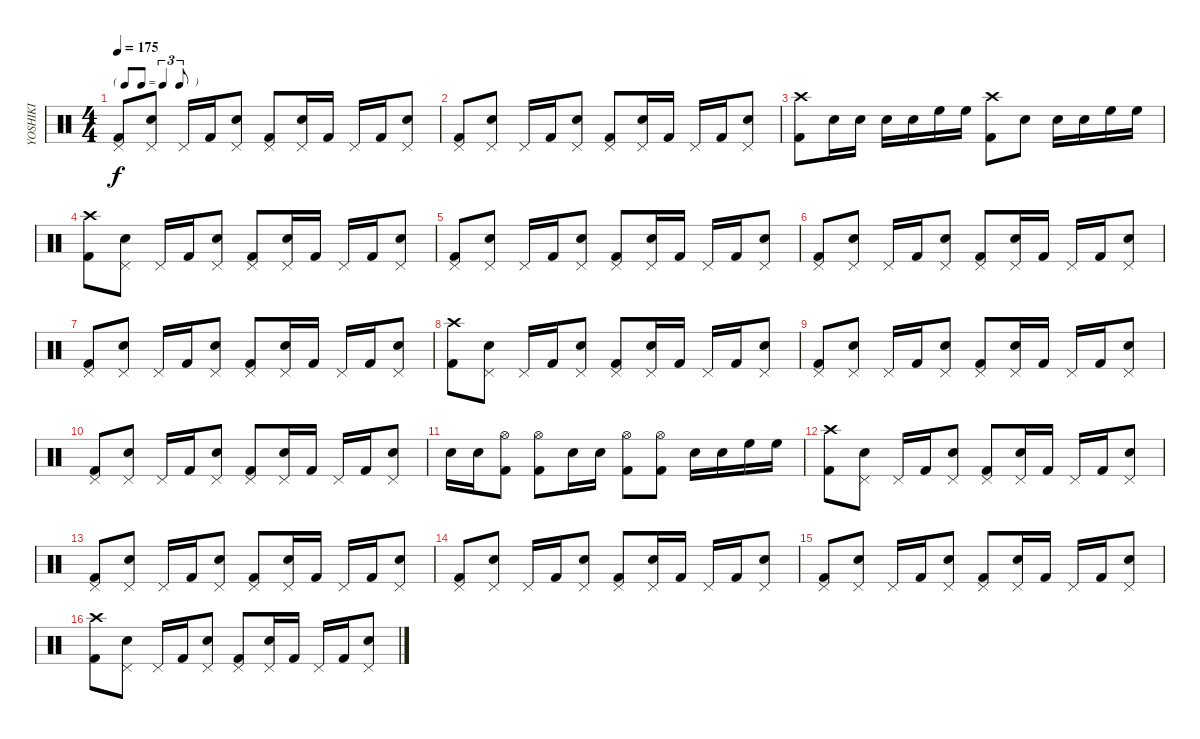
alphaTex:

\track ("YOSHIKI" "YOSHIKI") {instrument percussion}
\staff {score}
\articulation defaults
\ts (4 4)
\tf triplet8th
\tempo 175
\clef neutral
\ks c
("Pedal Hi-Hat (hit)" "Kick (hit) 2").8{dy f} ("Pedal Hi-Hat (hit)" "Snare (hit) 2").8 "Pedal Hi-Hat (hit)".16 "Kick (hit) 2".16 ("Pedal Hi-Hat (hit)" "Snare (hit) 2").8 ("Pedal Hi-Hat (hit)" "Kick (hit) 2").8 ("Pedal Hi-Hat (hit)" "Snare (hit) 2").16 "Kick (hit) 2".16 "Pedal Hi-Hat (hit)".16 "Kick (hit) 2".16 ("Pedal Hi-Hat (hit)" "Snare (hit) 2").8 |
("Pedal Hi-Hat (hit)" "Kick (hit) 2").8 ("Pedal Hi-Hat (hit)" "Snare (hit) 2").8 "Pedal Hi-Hat (hit)".16 "Kick (hit) 2".16 ("Pedal Hi-Hat (hit)" "Snare (hit) 2").8 ("Pedal Hi-Hat (hit)" "Kick (hit) 2").8 ("Pedal Hi-Hat (hit)" "Snare (hit) 2").16 "Kick (hit) 2".16 "Pedal Hi-Hat (hit)".16 "Kick (hit) 2".16 ("Pedal Hi-Hat (hit)" "Snare (hit) 2").8 |
("Crash high (hit)" "Kick (hit) 2").8 "Snare (hit) 2".16 "Snare (hit) 2".16 "Snare (hit) 2".16 "Snare (hit) 2".16 "High Floor Tom (hit)".16 "High Floor Tom (hit)".16 ("Crash high (hit)" "Kick (hit) 2").8 "Snare (hit) 2".8 "Snare (hit) 2".16 "Snare (hit) 2".16 "High Floor Tom (hit)".16 "High Floor Tom (hit)".16 |
("Crash high (hit)" "Kick (hit) 2").8 ("Pedal Hi-Hat (hit)" "Snare (hit) 2").8 "Pedal Hi-Hat (hit)".16 "Kick (hit) 2".16 ("Pedal Hi-Hat (hit)" "Snare (hit) 2").8 ("Pedal Hi-Hat (hit)" "Kick (hit) 2").8 ("Pedal Hi-Hat (hit)" "Snare (hit) 2").16 "Kick (hit) 2".16 "Pedal Hi-Hat (hit)".16 "Kick (hit) 2".16 ("Pedal Hi-Hat (hit)" "Snare (hit) 2").8 |
("Pedal Hi-Hat (hit)" "Kick (hit) 2").8 ("Pedal Hi-Hat (hit)" "Snare (hit) 2").8 "Pedal Hi-Hat (hit)".16 "Kick (hit) 2".16 ("Pedal Hi-Hat (hit)" "Snare (hit) 2").8 ("Pedal Hi-Hat (hit)" "Kick (hit) 2").8 ("Pedal Hi-Hat (hit)" "Snare (hit) 2").16 "Kick (hit) 2".16 "Pedal Hi-Hat (hit)".16 "Kick (hit) 2".16 ("Pedal Hi-Hat (hit)" "Snare (hit) 2").8 |
("Pedal Hi-Hat (hit)" "Kick (hit) 2").8 ("Pedal Hi-Hat (hit)" "Snare (hit) 2").8 "Pedal Hi-Hat (hit)".16 "Kick (hit) 2".16 ("Pedal Hi-Hat (hit)" "Snare (hit) 2").8 ("Pedal Hi-Hat (hit)" "Kick (hit) 2").8 ("Pedal Hi-Hat (hit)" "Snare (hit) 2").16 "Kick (hit) 2".16 "Pedal Hi-Hat (hit)".16 "Kick (hit) 2".16 ("Pedal Hi-Hat (hit)" "Snare (hit) 2").8 |
("Pedal Hi-Hat (hit)" "Kick (hit) 2").8 ("Pedal Hi-Hat (hit)" "Snare (hit) 2").8 "Pedal Hi-Hat (hit)".16 "Kick (hit) 2".16 ("Pedal Hi-Hat (hit)" "Snare (hit) 2").8 ("Pedal Hi-Hat (hit)" "Kick (hit) 2").8 ("Pedal Hi-Hat (hit)" "Snare (hit) 2").16 "Kick (hit) 2".16 "Pedal Hi-Hat (hit)".16 "Kick (hit) 2".16 ("Pedal Hi-Hat (hit)" "Snare (hit) 2").8 |
("Crash high (hit)" "Kick (hit) 2").8 ("Pedal Hi-Hat (hit)" "Snare (hit) 2").8 "Pedal Hi-Hat (hit)".16 "Kick (hit) 2".16 ("Pedal Hi-Hat (hit)" "Snare (hit) 2").8 ("Pedal Hi-Hat (hit)" "Kick (hit) 2").8 ("Pedal Hi-Hat (hit)" "Snare (hit) 2").16 "Kick (hit) 2".16 "Pedal Hi-Hat (hit)".16 "Kick (hit) 2".16 ("Pedal Hi-Hat (hit)" "Snare (hit) 2").8 |
("Pedal Hi-Hat (hit)" "Kick (hit) 2").8 ("Pedal Hi-Hat (hit)" "Snare (hit) 2").8 "Pedal Hi-Hat (hit)".16 "Kick (hit) 2".16 ("Pedal Hi-Hat (hit)" "Snare (hit) 2").8 ("Pedal Hi-Hat (hit)" "Kick (hit) 2").8 ("Pedal Hi-Hat (hit)" "Snare (hit) 2").16 "Kick (hit) 2".16 "Pedal Hi-Hat (hit)".16 "Kick (hit) 2".16 ("Pedal Hi-Hat (hit)" "Snare (hit) 2").8 |
("Pedal Hi-Hat (hit)" "Kick (hit) 2").8 ("Pedal Hi-Hat (hit)" "Snare (hit) 2").8 "Pedal Hi-Hat (hit)".16 "Kick (hit) 2".16 ("Pedal Hi-Hat (hit)" "Snare (hit) 2").8 ("Pedal Hi-Hat (hit)" "Kick (hit) 2").8 ("Pedal Hi-Hat (hit)" "Snare (hit) 2").16 "Kick (hit) 2".16 "Pedal Hi-Hat (hit)".16 "Kick (hit) 2".16 ("Pedal Hi-Hat (hit)" "Snare (hit) 2").8 |
"Snare (hit) 2".16 "Snare (hit) 2".16 ("Hi-Hat (open)" "Kick (hit) 2").8 ("Hi-Hat (open)" "Kick (hit) 2").8 "Snare (hit) 2".16 "Snare (hit) 2".16 ("Hi-Hat (open)" "Kick (hit) 2").8 ("Hi-Hat (open)" "Kick (hit) 2").8 "Snare (hit) 2".16 "Snare (hit) 2".16 "High Floor Tom (hit)".16 "High Floor Tom (hit)".16 |
("Crash high (hit)" "Kick (hit) 2").8 ("Pedal Hi-Hat (hit)" "Snare (hit) 2").8 "Pedal Hi-Hat (hit)".16 "Kick (hit) 2".16 ("Pedal Hi-Hat (hit)" "Snare (hit) 2").8 ("Pedal Hi-Hat (hit)" "Kick (hit) 2").8 ("Pedal Hi-Hat (hit)" "Snare (hit) 2").16 "Kick (hit) 2".16 "Pedal Hi-Hat (hit)".16 "Kick (hit) 2".16 ("Pedal Hi-Hat (hit)" "Snare (hit) 2").8 |
("Pedal Hi-Hat (hit)" "Kick (hit) 2").8 ("Pedal Hi-Hat (hit)" "Snare (hit) 2").8 "Pedal Hi-Hat (hit)".16 "Kick (hit) 2".16 ("Pedal Hi-Hat (hit)" "Snare (hit) 2").8 ("Pedal Hi-Hat (hit)" "Kick (hit) 2").8 ("Pedal Hi-Hat (hit)" "Snare (hit) 2").16 "Kick (hit) 2".16 "Pedal Hi-Hat (hit)".16 "Kick (hit) 2".16 ("Pedal Hi-Hat (hit)" "Snare (hit) 2").8 |
("Pedal Hi-Hat (hit)" "Kick (hit) 2").8 ("Pedal Hi-Hat (hit)" "Snare (hit) 2").8 "Pedal Hi-Hat (hit)".16 "Kick (hit) 2".16 ("Pedal Hi-Hat (hit)" "Snare (hit) 2").8 ("Pedal Hi-Hat (hit)" "Kick (hit) 2").8 ("Pedal Hi-Hat (hit)" "Snare (hit) 2").16 "Kick (hit) 2".16 "Pedal Hi-Hat (hit)".16 "Kick (hit) 2".16 ("Pedal Hi-Hat (hit)" "Snare (hit) 2").8 |
("Pedal Hi-Hat (hit)" "Kick (hit) 2").8 ("Pedal Hi-Hat (hit)" "Snare (hit) 2").8 "Pedal Hi-Hat (hit)".16 "Kick (hit) 2".16 ("Pedal Hi-Hat (hit)" "Snare (hit) 2").8 ("Pedal Hi-Hat (hit)" "Kick (hit) 2").8 ("Pedal Hi-Hat (hit)" "Snare (hit) 2").16 "Kick (hit) 2".16 "Pedal Hi-Hat (hit)".16 "Kick (hit) 2".16 ("Pedal Hi-Hat (hit)" "Snare (hit) 2").8 |
("Crash high (hit)" "Kick (hit) 2").8 ("Pedal Hi-Hat (hit)" "Snare (hit) 2").8 "Pedal Hi-Hat (hit)".16 "Kick (hit) 2".16 ("Pedal Hi-Hat (hit)" "Snare (hit) 2").8 ("Pedal Hi-Hat (hit)" "Kick (hit) 2").8 ("Pedal Hi-Hat (hit)" "Snare (hit) 2").16 "Kick (hit) 2".16 "Pedal Hi-Hat (hit)".16 "Kick (hit) 2".16 ("Pedal Hi-Hat (hit)" "Snare (hit) 2").8
